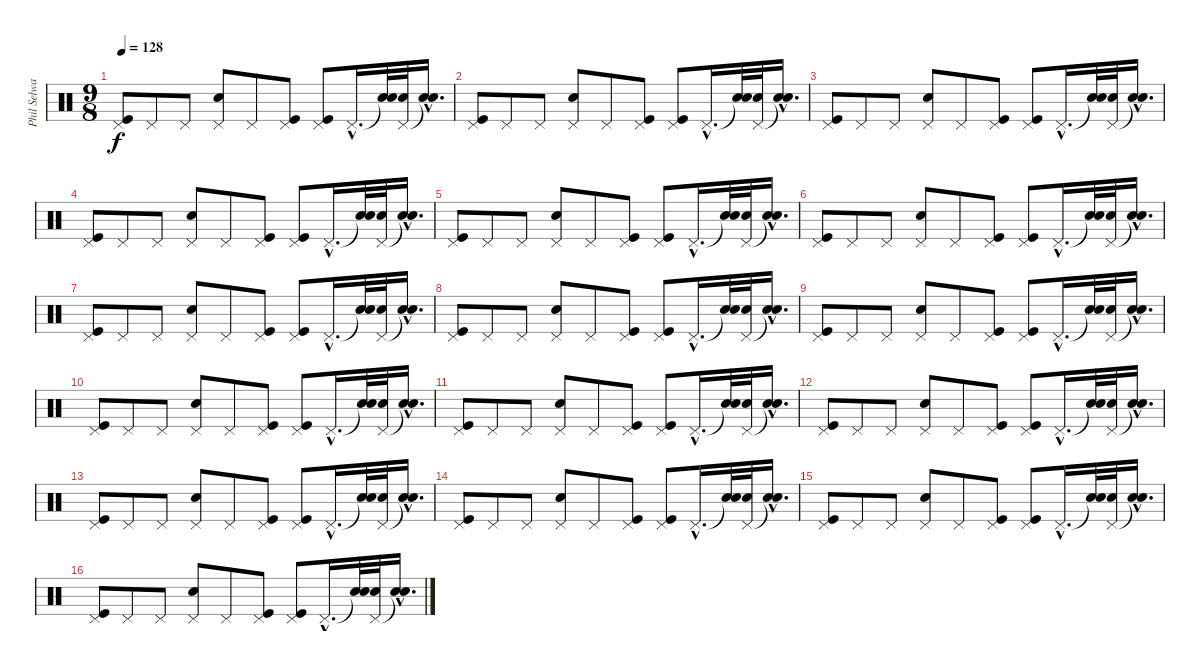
\track ("Phil Selway - Drums" "Phil Selwa") {instrument percussion}
\staff {score}
\articulation defaults
\ts (9 8)
\tempo 128
\clef neutral
\ks c
("Pedal Hi-Hat (hit)" "Kick (hit)").8{dy f} "Pedal Hi-Hat (hit)".8 "Pedal Hi-Hat (hit)".8 ("Pedal Hi-Hat (hit)" "Snare (hit) 2").8 "Pedal Hi-Hat (hit)".8 ("Pedal Hi-Hat (hit)" "Kick (hit)").8 ("Pedal Hi-Hat (hit)" "Kick (hit)").8 "Pedal Hi-Hat (hit)"{hac}.16{d} ("Snare (hit)"{t} "Snare (hit) 2").32 ("Pedal Hi-Hat (hit)" "Snare (hit) 2").32 ("Snare (hit)"{hac t} "Snare (hit) 2"{hac}).16{d} |
("Pedal Hi-Hat (hit)" "Kick (hit)").8 "Pedal Hi-Hat (hit)".8 "Pedal Hi-Hat (hit)".8 ("Pedal Hi-Hat (hit)" "Snare (hit) 2").8 "Pedal Hi-Hat (hit)".8 ("Pedal Hi-Hat (hit)" "Kick (hit)").8 ("Pedal Hi-Hat (hit)" "Kick (hit)").8 "Pedal Hi-Hat (hit)"{hac}.16{d} ("Snare (hit)"{t} "Snare (hit) 2").32 ("Pedal Hi-Hat (hit)" "Snare (hit) 2").32 ("Snare (hit)"{hac t} "Snare (hit) 2"{hac}).16{d} |
("Pedal Hi-Hat (hit)" "Kick (hit)").8 "Pedal Hi-Hat (hit)".8 "Pedal Hi-Hat (hit)".8 ("Pedal Hi-Hat (hit)" "Snare (hit) 2").8 "Pedal Hi-Hat (hit)".8 ("Pedal Hi-Hat (hit)" "Kick (hit)").8 ("Pedal Hi-Hat (hit)" "Kick (hit)").8 "Pedal Hi-Hat (hit)"{hac}.16{d} ("Snare (hit)"{t} "Snare (hit) 2").32 ("Pedal Hi-Hat (hit)" "Snare (hit) 2").32 ("Snare (hit)"{hac t} "Snare (hit) 2"{hac}).16{d} |
("Pedal Hi-Hat (hit)" "Kick (hit)").8 "Pedal Hi-Hat (hit)".8 "Pedal Hi-Hat (hit)".8 ("Pedal Hi-Hat (hit)" "Snare (hit) 2").8 "Pedal Hi-Hat (hit)".8 ("Pedal Hi-Hat (hit)" "Kick (hit)").8 ("Pedal Hi-Hat (hit)" "Kick (hit)").8 "Pedal Hi-Hat (hit)"{hac}.16{d} ("Snare (hit)"{t} "Snare (hit) 2").32 ("Pedal Hi-Hat (hit)" "Snare (hit) 2").32 ("Snare (hit)"{hac t} "Snare (hit) 2"{hac}).16{d} |
("Pedal Hi-Hat (hit)" "Kick (hit)").8 "Pedal Hi-Hat (hit)".8 "Pedal Hi-Hat (hit)".8 ("Pedal Hi-Hat (hit)" "Snare (hit) 2").8 "Pedal Hi-Hat (hit)".8 ("Pedal Hi-Hat (hit)" "Kick (hit)").8 ("Pedal Hi-Hat (hit)" "Kick (hit)").8 "Pedal Hi-Hat (hit)"{hac}.16{d} ("Snare (hit)"{t} "Snare (hit) 2").32 ("Pedal Hi-Hat (hit)" "Snare (hit) 2").32 ("Snare (hit)"{hac t} "Snare (hit) 2"{hac}).16{d} |
("Pedal Hi-Hat (hit)" "Kick (hit)").8 "Pedal Hi-Hat (hit)".8 "Pedal Hi-Hat (hit)".8 ("Pedal Hi-Hat (hit)" "Snare (hit) 2").8 "Pedal Hi-Hat (hit)".8 ("Pedal Hi-Hat (hit)" "Kick (hit)").8 ("Pedal Hi-Hat (hit)" "Kick (hit)").8 "Pedal Hi-Hat (hit)"{hac}.16{d} ("Snare (hit)"{t} "Snare (hit) 2").32 ("Pedal Hi-Hat (hit)" "Snare (hit) 2").32 ("Snare (hit)"{hac t} "Snare (hit) 2"{hac}).16{d} |
("Pedal Hi-Hat (hit)" "Kick (hit)").8 "Pedal Hi-Hat (hit)".8 "Pedal Hi-Hat (hit)".8 ("Pedal Hi-Hat (hit)" "Snare (hit) 2").8 "Pedal Hi-Hat (hit)".8 ("Pedal Hi-Hat (hit)" "Kick (hit)").8 ("Pedal Hi-Hat (hit)" "Kick (hit)").8 "Pedal Hi-Hat (hit)"{hac}.16{d} ("Snare (hit)"{t} "Snare (hit) 2").32 ("Pedal Hi-Hat (hit)" "Snare (hit) 2").32 ("Snare (hit)"{hac t} "Snare (hit) 2"{hac}).16{d} |
("Pedal Hi-Hat (hit)" "Kick (hit)").8 "Pedal Hi-Hat (hit)".8 "Pedal Hi-Hat (hit)".8 ("Pedal Hi-Hat (hit)" "Snare (hit) 2").8 "Pedal Hi-Hat (hit)".8 ("Pedal Hi-Hat (hit)" "Kick (hit)").8 ("Pedal Hi-Hat (hit)" "Kick (hit)").8 "Pedal Hi-Hat (hit)"{hac}.16{d} ("Snare (hit)"{t} "Snare (hit) 2").32 ("Pedal Hi-Hat (hit)" "Snare (hit) 2").32 ("Snare (hit)"{hac t} "Snare (hit) 2"{hac}).16{d} |
("Pedal Hi-Hat (hit)" "Kick (hit)").8 "Pedal Hi-Hat (hit)".8 "Pedal Hi-Hat (hit)".8 ("Pedal Hi-Hat (hit)" "Snare (hit) 2").8 "Pedal Hi-Hat (hit)".8 ("Pedal Hi-Hat (hit)" "Kick (hit)").8 ("Pedal Hi-Hat (hit)" "Kick (hit)").8 "Pedal Hi-Hat (hit)"{hac}.16{d} ("Snare (hit)"{t} "Snare (hit) 2").32 ("Pedal Hi-Hat (hit)" "Snare (hit) 2").32 ("Snare (hit)"{hac t} "Snare (hit) 2"{hac}).16{d} |
("Pedal Hi-Hat (hit)" "Kick (hit)").8 "Pedal Hi-Hat (hit)".8 "Pedal Hi-Hat (hit)".8 ("Pedal Hi-Hat (hit)" "Snare (hit) 2").8 "Pedal Hi-Hat (hit)".8 ("Pedal Hi-Hat (hit)" "Kick (hit)").8 ("Pedal Hi-Hat (hit)" "Kick (hit)").8 "Pedal Hi-Hat (hit)"{hac}.16{d} ("Snare (hit)"{t} "Snare (hit) 2").32 ("Pedal Hi-Hat (hit)" "Snare (hit) 2").32 ("Snare (hit)"{hac t} "Snare (hit) 2"{hac}).16{d} |
("Pedal Hi-Hat (hit)" "Kick (hit)").8 "Pedal Hi-Hat (hit)".8 "Pedal Hi-Hat (hit)".8 ("Pedal Hi-Hat (hit)" "Snare (hit) 2").8 "Pedal Hi-Hat (hit)".8 ("Pedal Hi-Hat (hit)" "Kick (hit)").8 ("Pedal Hi-Hat (hit)" "Kick (hit)").8 "Pedal Hi-Hat (hit)"{hac}.16{d} ("Snare (hit)"{t} "Snare (hit) 2").32 ("Pedal Hi-Hat (hit)" "Snare (hit) 2").32 ("Snare (hit)"{hac t} "Snare (hit) 2"{hac}).16{d} |
("Pedal Hi-Hat (hit)" "Kick (hit)").8 "Pedal Hi-Hat (hit)".8 "Pedal Hi-Hat (hit)".8 ("Pedal Hi-Hat (hit)" "Snare (hit) 2").8 "Pedal Hi-Hat (hit)".8 ("Pedal Hi-Hat (hit)" "Kick (hit)").8 ("Pedal Hi-Hat (hit)" "Kick (hit)").8 "Pedal Hi-Hat (hit)"{hac}.16{d} ("Snare (hit)"{t} "Snare (hit) 2").32 ("Pedal Hi-Hat (hit)" "Snare (hit) 2").32 ("Snare (hit)"{hac t} "Snare (hit) 2"{hac}).16{d} |
("Pedal Hi-Hat (hit)" "Kick (hit)").8 "Pedal Hi-Hat (hit)".8 "Pedal Hi-Hat (hit)".8 ("Pedal Hi-Hat (hit)" "Snare (hit) 2").8 "Pedal Hi-Hat (hit)".8 ("Pedal Hi-Hat (hit)" "Kick (hit)").8 ("Pedal Hi-Hat (hit)" "Kick (hit)").8 "Pedal Hi-Hat (hit)"{hac}.16{d} ("Snare (hit)"{t} "Snare (hit) 2").32 ("Pedal Hi-Hat (hit)" "Snare (hit) 2").32 ("Snare (hit)"{hac t} "Snare (hit) 2"{hac}).16{d} |
("Pedal Hi-Hat (hit)" "Kick (hit)").8 "Pedal Hi-Hat (hit)".8 "Pedal Hi-Hat (hit)".8 ("Pedal Hi-Hat (hit)" "Snare (hit) 2").8 "Pedal Hi-Hat (hit)".8 ("Pedal Hi-Hat (hit)" "Kick (hit)").8 ("Pedal Hi-Hat (hit)" "Kick (hit)").8 "Pedal Hi-Hat (hit)"{hac}.16{d} ("Snare (hit)"{t} "Snare (hit) 2").32 ("Pedal Hi-Hat (hit)" "Snare (hit) 2").32 ("Snare (hit)"{hac t} "Snare (hit) 2"{hac}).16{d} |
("Pedal Hi-Hat (hit)" "Kick (hit)").8 "Pedal Hi-Hat (hit)".8 "Pedal Hi-Hat (hit)".8 ("Pedal Hi-Hat (hit)" "Snare (hit) 2").8 "Pedal Hi-Hat (hit)".8 ("Pedal Hi-Hat (hit)" "Kick (hit)").8 ("Pedal Hi-Hat (hit)" "Kick (hit)").8 "Pedal Hi-Hat (hit)"{hac}.16{d} ("Snare (hit)"{t} "Snare (hit) 2").32 ("Pedal Hi-Hat (hit)" "Snare (hit) 2").32 ("Snare (hit)"{hac t} "Snare (hit) 2"{hac}).16{d} |
("Pedal Hi-Hat (hit)" "Kick (hit)").8 "Pedal Hi-Hat (hit)".8 "Pedal Hi-Hat (hit)".8 ("Pedal Hi-Hat (hit)" "Snare (hit) 2").8 "Pedal Hi-Hat (hit)".8 ("Pedal Hi-Hat (hit)" "Kick (hit)").8 ("Pedal Hi-Hat (hit)" "Kick (hit)").8 "Pedal Hi-Hat (hit)"{hac}.16{d} ("Snare (hit)"{t} "Snare (hit) 2").32 ("Pedal Hi-Hat (hit)" "Snare (hit) 2").32 ("Snare (hit)"{hac t} "Snare (hit) 2"{hac}).16{d}
